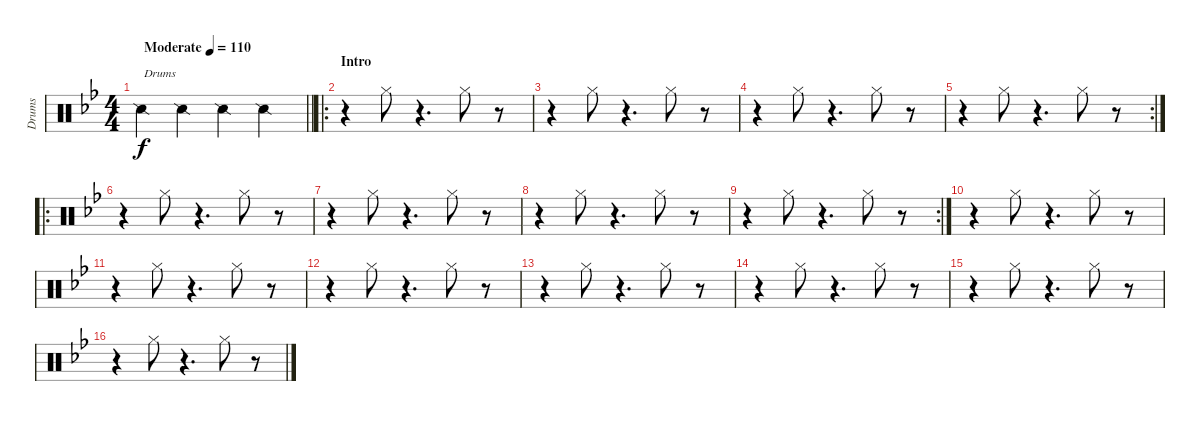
\track ("Drums" "Drums") {instrument percussion}
\staff {score}
\articulation defaults
\ts (4 4)
\tempo (110 "Moderate")
\clef neutral
\barLineRight lightlight
\ks bb "Snare (side stick) 2".4{txt "Drums" dy f} "Snare (side stick) 2".4 "Snare (side stick) 2".4 "Snare (side stick) 2".4
|
\ro
\section ("" "Intro")
r.4 "Hi-Hat (closed)".8 r.4{d} "Hi-Hat (closed)".8 r.8 |
r.4 "Hi-Hat (closed)".8 r.4{d} "Hi-Hat (closed)".8 r.8 |
r.4 "Hi-Hat (closed)".8 r.4{d} "Hi-Hat (closed)".8 r.8 |
\rc 2
r.4 "Hi-Hat (closed)".8 r.4{d} "Hi-Hat (closed)".8 r.8 |
\ro
r.4 "Hi-Hat (closed)".8 r.4{d} "Hi-Hat (closed)".8 r.8 |
r.4 "Hi-Hat (closed)".8 r.4{d} "Hi-Hat (closed)".8 r.8 |
r.4 "Hi-Hat (closed)".8 r.4{d} "Hi-Hat (closed)".8 r.8 |
\rc 2
r.4 "Hi-Hat (closed)".8 r.4{d} "Hi-Hat (closed)".8 r.8 |
r.4 "Hi-Hat (closed)".8 r.4{d} "Hi-Hat (closed)".8 r.8 |
r.4 "Hi-Hat (closed)".8 r.4{d} "Hi-Hat (closed)".8 r.8 |
r.4 "Hi-Hat (closed)".8 r.4{d} "Hi-Hat (closed)".8 r.8 |
r.4 "Hi-Hat (closed)".8 r.4{d} "Hi-Hat (closed)".8 r.8 |
r.4 "Hi-Hat (closed)".8 r.4{d} "Hi-Hat (closed)".8 r.8 |
r.4 "Hi-Hat (closed)".8 r.4{d} "Hi-Hat (closed)".8 r.8 |
r.4 "Hi-Hat (closed)".8 r.4{d} "Hi-Hat (closed)".8 r.8
